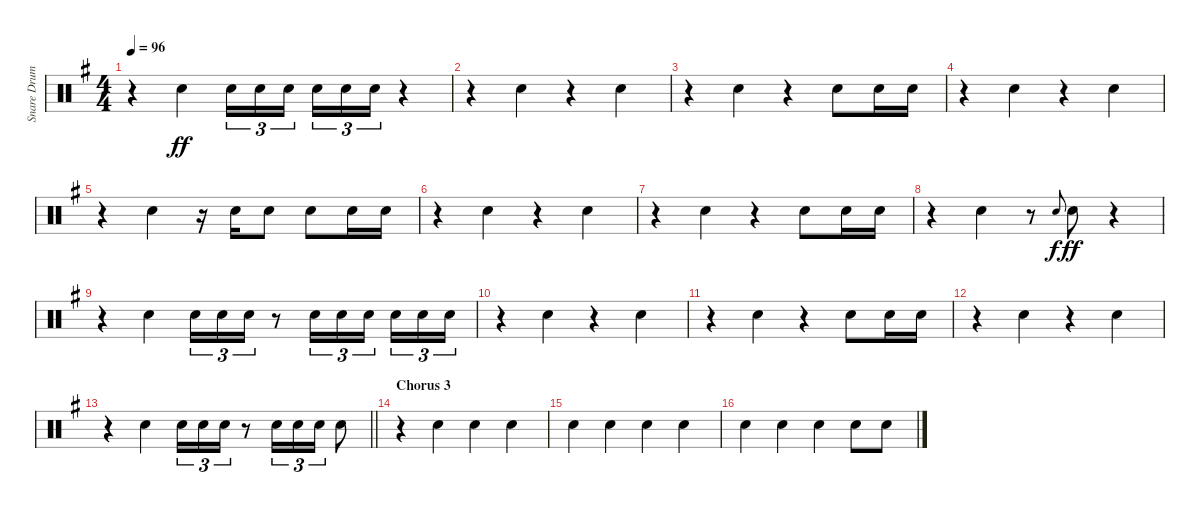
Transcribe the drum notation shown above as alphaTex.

\track ("Snare Drum" "Snare Drum") {instrument percussion}
\staff {score}
\articulation defaults
\ts (4 4)
\tempo 96
\clef neutral
\ks g
r.4{dy ff beam merge} "Electric Snare (hit)".4 "Electric Snare (hit)".16{tu (3 2)} "Electric Snare (hit)".16{tu (3 2)} "Electric Snare (hit)".16{tu (3 2) beam splitsecondary} "Electric Snare (hit)".16{tu (3 2)} "Electric Snare (hit)".16{tu (3 2)} "Electric Snare (hit)".16{tu (3 2)} r.4 |
r.4{beam merge} "Electric Snare (hit)".4 r.4{beam merge} "Electric Snare (hit)".4 |
r.4{beam merge} "Electric Snare (hit)".4 r.4{beam merge} "Electric Snare (hit)".8 "Electric Snare (hit)".16 "Electric Snare (hit)".16 |
r.4{beam merge} "Electric Snare (hit)".4 r.4{beam merge} "Electric Snare (hit)".4 |
r.4{beam merge} "Electric Snare (hit)".4 r.16 "Electric Snare (hit)".16 "Electric Snare (hit)".8 "Electric Snare (hit)".8 "Electric Snare (hit)".16 "Electric Snare (hit)".16 |
r.4{beam merge} "Electric Snare (hit)".4 r.4{beam merge} "Electric Snare (hit)".4 |
r.4{beam merge} "Electric Snare (hit)".4 r.4{beam merge} "Electric Snare (hit)".8 "Electric Snare (hit)".16 "Electric Snare (hit)".16 |
r.4{beam merge} "Electric Snare (hit)".4 r.8 "Electric Snare (hit)".8{gr onbeat dy f} "Electric Snare (hit)".8{dy ff} r.4 |
r.4{beam merge} "Electric Snare (hit)".4 "Electric Snare (hit)".16{tu (3 2)} "Electric Snare (hit)".16{tu (3 2)} "Electric Snare (hit)".16{tu (3 2)} r.8 "Electric Snare (hit)".16{tu (3 2)} "Electric Snare (hit)".16{tu (3 2)} "Electric Snare (hit)".16{tu (3 2) beam splitsecondary} "Electric Snare (hit)".16{tu (3 2)} "Electric Snare (hit)".16{tu (3 2)} "Electric Snare (hit)".16{tu (3 2)} |
r.4{beam merge} "Electric Snare (hit)".4 r.4{beam merge} "Electric Snare (hit)".4 |
r.4{beam merge} "Electric Snare (hit)".4 r.4{beam merge} "Electric Snare (hit)".8 "Electric Snare (hit)".16 "Electric Snare (hit)".16 |
r.4{beam merge} "Electric Snare (hit)".4 r.4{beam merge} "Electric Snare (hit)".4 |
\barLineRight lightlight
r.4{beam merge} "Electric Snare (hit)".4 "Electric Snare (hit)".16{tu (3 2)} "Electric Snare (hit)".16{tu (3 2)} "Electric Snare (hit)".16{tu (3 2)} r.8 "Electric Snare (hit)".16{tu (3 2)} "Electric Snare (hit)".16{tu (3 2)} "Electric Snare (hit)".16{tu (3 2)} "Electric Snare (hit)".8 |
\section ("" "Chorus 3")
r.4{beam merge} "Electric Snare (hit)".4 "Electric Snare (hit)".4{beam merge} "Electric Snare (hit)".4 |
"Electric Snare (hit)".4{beam merge} "Electric Snare (hit)".4 "Electric Snare (hit)".4{beam merge} "Electric Snare (hit)".4 |
"Electric Snare (hit)".4{beam merge} "Electric Snare (hit)".4 "Electric Snare (hit)".4{beam merge} "Electric Snare (hit)".8 "Electric Snare (hit)".8
